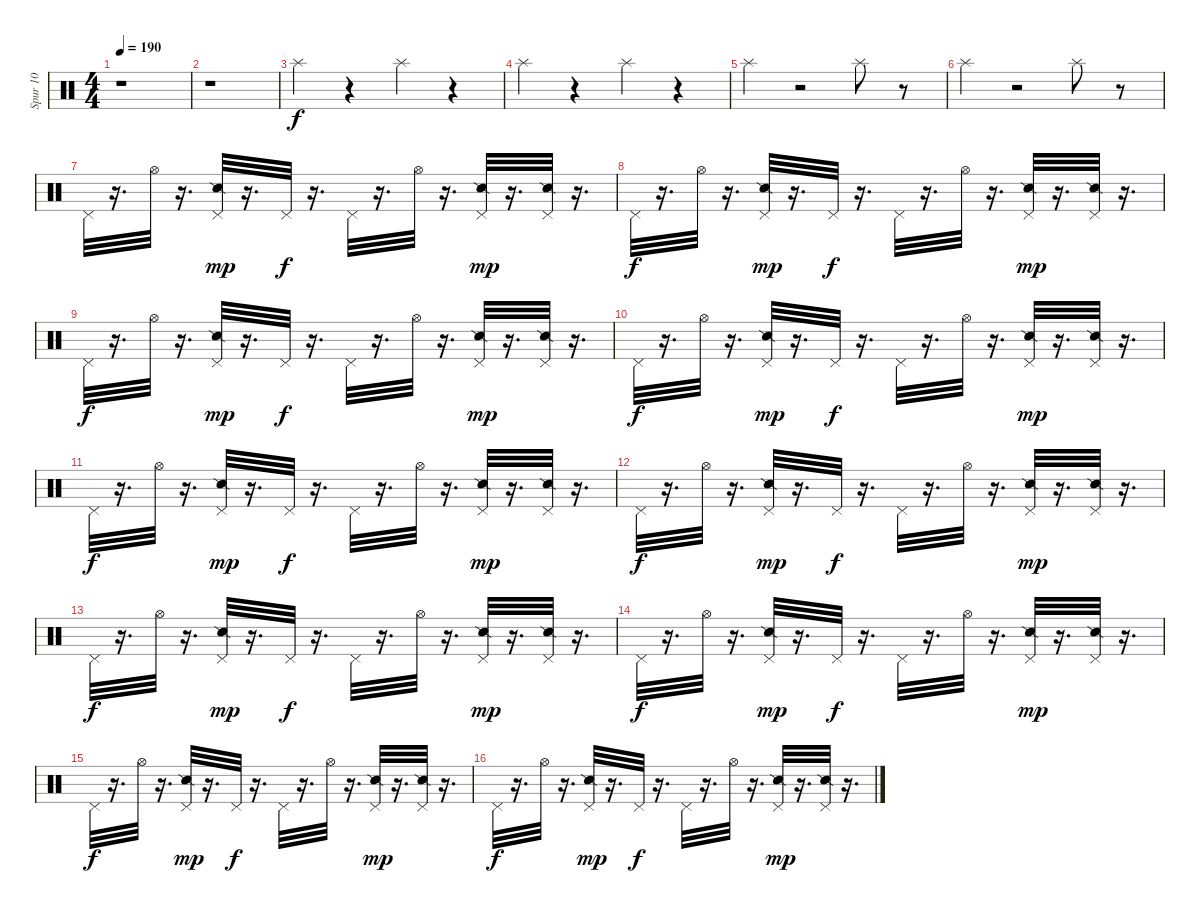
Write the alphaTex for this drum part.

\track ("Spur 10" "Spur 10") {instrument percussion}
\staff {score}
\articulation defaults
\ts (4 4)
\tempo 190
\clef neutral
\ks c
r.1{dy f} |
r.1 |
"Splash (hit)".4 r.4 "Splash (hit)".4 r.4 |
"Splash (hit)".4 r.4 "Splash (hit)".4 r.4 |
"Splash (hit)".4 r.2 "Splash (hit)".8 r.8 |
"Splash (hit)".4 r.2 "Splash (hit)".8 r.8 |
"Pedal Hi-Hat (hit)".32 r.16{d} "Hi-Hat (open)".32 r.16{d} ("Snare (side stick) 2" "Pedal Hi-Hat (hit)").32{dy mp} r.16{d} "Pedal Hi-Hat (hit)".32{dy f} r.16{d} "Pedal Hi-Hat (hit)".32 r.16{d} "Hi-Hat (open)".32 r.16{d} ("Snare (side stick) 2" "Pedal Hi-Hat (hit)").32{dy mp} r.16{d} ("Snare (side stick) 2" "Pedal Hi-Hat (hit)").32 r.16{d} |
"Pedal Hi-Hat (hit)".32{dy f} r.16{d} "Hi-Hat (open)".32 r.16{d} ("Snare (side stick) 2" "Pedal Hi-Hat (hit)").32{dy mp} r.16{d} "Pedal Hi-Hat (hit)".32{dy f} r.16{d} "Pedal Hi-Hat (hit)".32 r.16{d} "Hi-Hat (open)".32 r.16{d} ("Snare (side stick) 2" "Pedal Hi-Hat (hit)").32{dy mp} r.16{d} ("Snare (side stick) 2" "Pedal Hi-Hat (hit)").32 r.16{d} |
"Pedal Hi-Hat (hit)".32{dy f} r.16{d} "Hi-Hat (open)".32 r.16{d} ("Snare (side stick) 2" "Pedal Hi-Hat (hit)").32{dy mp} r.16{d} "Pedal Hi-Hat (hit)".32{dy f} r.16{d} "Pedal Hi-Hat (hit)".32 r.16{d} "Hi-Hat (open)".32 r.16{d} ("Snare (side stick) 2" "Pedal Hi-Hat (hit)").32{dy mp} r.16{d} ("Snare (side stick) 2" "Pedal Hi-Hat (hit)").32 r.16{d} |
"Pedal Hi-Hat (hit)".32{dy f} r.16{d} "Hi-Hat (open)".32 r.16{d} ("Snare (side stick) 2" "Pedal Hi-Hat (hit)").32{dy mp} r.16{d} "Pedal Hi-Hat (hit)".32{dy f} r.16{d} "Pedal Hi-Hat (hit)".32 r.16{d} "Hi-Hat (open)".32 r.16{d} ("Snare (side stick) 2" "Pedal Hi-Hat (hit)").32{dy mp} r.16{d} ("Snare (side stick) 2" "Pedal Hi-Hat (hit)").32 r.16{d} |
"Pedal Hi-Hat (hit)".32{dy f} r.16{d} "Hi-Hat (open)".32 r.16{d} ("Snare (side stick) 2" "Pedal Hi-Hat (hit)").32{dy mp} r.16{d} "Pedal Hi-Hat (hit)".32{dy f} r.16{d} "Pedal Hi-Hat (hit)".32 r.16{d} "Hi-Hat (open)".32 r.16{d} ("Snare (side stick) 2" "Pedal Hi-Hat (hit)").32{dy mp} r.16{d} ("Snare (side stick) 2" "Pedal Hi-Hat (hit)").32 r.16{d} |
"Pedal Hi-Hat (hit)".32{dy f} r.16{d} "Hi-Hat (open)".32 r.16{d} ("Snare (side stick) 2" "Pedal Hi-Hat (hit)").32{dy mp} r.16{d} "Pedal Hi-Hat (hit)".32{dy f} r.16{d} "Pedal Hi-Hat (hit)".32 r.16{d} "Hi-Hat (open)".32 r.16{d} ("Snare (side stick) 2" "Pedal Hi-Hat (hit)").32{dy mp} r.16{d} ("Snare (side stick) 2" "Pedal Hi-Hat (hit)").32 r.16{d} |
"Pedal Hi-Hat (hit)".32{dy f} r.16{d} "Hi-Hat (open)".32 r.16{d} ("Snare (side stick) 2" "Pedal Hi-Hat (hit)").32{dy mp} r.16{d} "Pedal Hi-Hat (hit)".32{dy f} r.16{d} "Pedal Hi-Hat (hit)".32 r.16{d} "Hi-Hat (open)".32 r.16{d} ("Snare (side stick) 2" "Pedal Hi-Hat (hit)").32{dy mp} r.16{d} ("Snare (side stick) 2" "Pedal Hi-Hat (hit)").32 r.16{d} |
"Pedal Hi-Hat (hit)".32{dy f} r.16{d} "Hi-Hat (open)".32 r.16{d} ("Snare (side stick) 2" "Pedal Hi-Hat (hit)").32{dy mp} r.16{d} "Pedal Hi-Hat (hit)".32{dy f} r.16{d} "Pedal Hi-Hat (hit)".32 r.16{d} "Hi-Hat (open)".32 r.16{d} ("Snare (side stick) 2" "Pedal Hi-Hat (hit)").32{dy mp} r.16{d} ("Snare (side stick) 2" "Pedal Hi-Hat (hit)").32 r.16{d} |
"Pedal Hi-Hat (hit)".32{dy f} r.16{d} "Hi-Hat (open)".32 r.16{d} ("Snare (side stick) 2" "Pedal Hi-Hat (hit)").32{dy mp} r.16{d} "Pedal Hi-Hat (hit)".32{dy f} r.16{d} "Pedal Hi-Hat (hit)".32 r.16{d} "Hi-Hat (open)".32 r.16{d} ("Snare (side stick) 2" "Pedal Hi-Hat (hit)").32{dy mp} r.16{d} ("Snare (side stick) 2" "Pedal Hi-Hat (hit)").32 r.16{d} |
"Pedal Hi-Hat (hit)".32{dy f} r.16{d} "Hi-Hat (open)".32 r.16{d} ("Snare (side stick) 2" "Pedal Hi-Hat (hit)").32{dy mp} r.16{d} "Pedal Hi-Hat (hit)".32{dy f} r.16{d} "Pedal Hi-Hat (hit)".32 r.16{d} "Hi-Hat (open)".32 r.16{d} ("Snare (side stick) 2" "Pedal Hi-Hat (hit)").32{dy mp} r.16{d} ("Snare (side stick) 2" "Pedal Hi-Hat (hit)").32 r.16{d}
